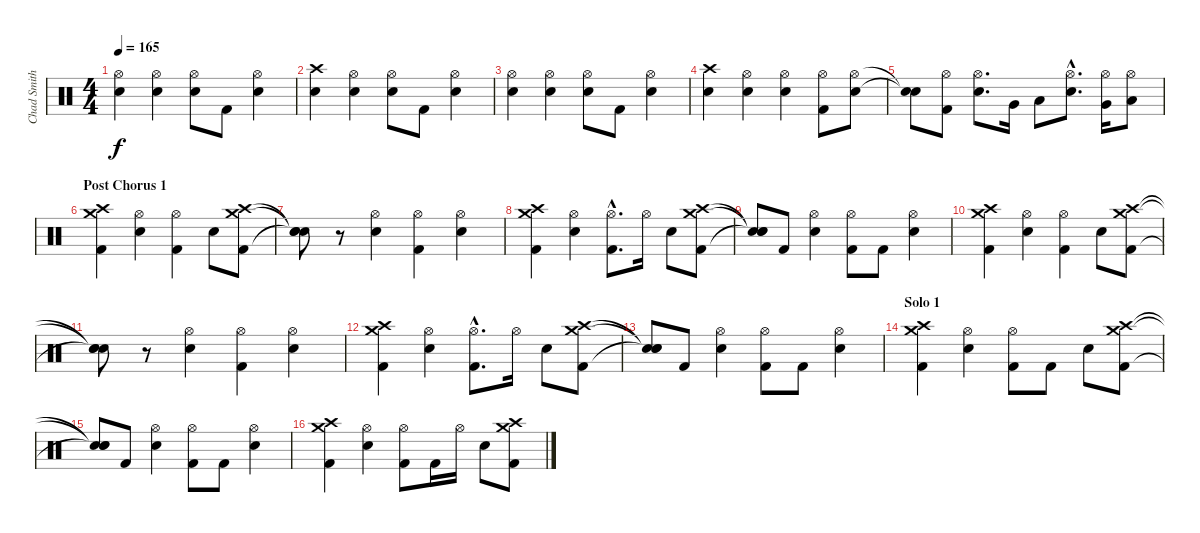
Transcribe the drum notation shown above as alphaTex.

\track ("Chad Smith - Drums" "Chad Smith") {instrument percussion}
\staff {score}
\articulation defaults
\ts (4 4)
\tempo 165
\clef neutral
\ks c
("Hi-Hat (open)" "Snare (hit) 2").4{dy f} ("Hi-Hat (open)" "Snare (hit) 2").4 ("Hi-Hat (open)" "Snare (hit) 2").8 "Kick (hit) 2".8 ("Snare (hit) 2" "Hi-Hat (open)").4 |
("Snare (hit) 2" "Crash high (hit)").4 ("Hi-Hat (open)" "Snare (hit) 2").4 ("Hi-Hat (open)" "Snare (hit) 2").8 "Kick (hit) 2".8 ("Snare (hit) 2" "Hi-Hat (open)").4 |
("Hi-Hat (open)" "Snare (hit) 2").4 ("Hi-Hat (open)" "Snare (hit) 2").4 ("Snare (hit) 2" "Hi-Hat (open)").8 "Kick (hit) 2".8 ("Hi-Hat (open)" "Snare (hit) 2").4 |
("Crash high (hit)" "Snare (hit) 2").4 ("Snare (hit) 2" "Hi-Hat (open)").4 ("Hi-Hat (open)" "Snare (hit) 2").4 ("Hi-Hat (open)" "Kick (hit) 2").8 ("Hi-Hat (open)" "Snare (hit) 2").8 |
("Snare (hit)"{t} "Snare (hit)"{t}).8 ("Hi-Hat (open)" "Kick (hit) 2").8 ("Hi-Hat (open)" "Snare (hit) 2").8{d} "Very Low Tom (hit)".16 "Low Floor Tom (hit)".8 ("Hi-Hat (open)"{hac} "Snare (hit) 2").8{d} ("Hi-Hat (open)" "Very Low Tom (hit)").16 ("Low Floor Tom (hit)" "Hi-Hat (open)").8 |
\section ("" "Post Chorus 1")
("Crash medium (hit)" "Crash high (hit)" "Kick (hit) 2").4 ("Hi-Hat (open)" "Snare (hit) 2").4 ("Hi-Hat (open)" "Kick (hit) 2").4 "Snare (hit) 2".8 ("Crash medium (hit)" "Kick (hit) 2" "Crash high (hit)").8 |
("Snare (hit)"{t} "Snare (hit)"{t} "Snare (hit)"{t}).8 r.8 ("Hi-Hat (open)" "Snare (hit) 2").4 ("Hi-Hat (open)" "Kick (hit) 2").4 ("Hi-Hat (open)" "Snare (hit) 2").4 |
("Crash medium (hit)" "Crash high (hit)" "Kick (hit) 2").4 ("Hi-Hat (open)" "Snare (hit) 2").4 ("Hi-Hat (open)"{hac} "Kick (hit) 2").8{d} "Hi-Hat (open)".16 "Snare (hit) 2".8 ("Crash high (hit)" "Crash medium (hit)" "Kick (hit) 2").8 |
("Snare (hit)"{t} "Snare (hit)"{t} "Snare (hit)"{t}).8 "Kick (hit) 2".8 ("Snare (hit) 2" "Hi-Hat (open)").4 ("Kick (hit) 2" "Hi-Hat (open)").8 "Kick (hit) 2".8 ("Snare (hit) 2" "Hi-Hat (open)").4 |
("Crash medium (hit)" "Crash high (hit)" "Kick (hit) 2").4 ("Hi-Hat (open)" "Snare (hit) 2").4 ("Hi-Hat (open)" "Kick (hit) 2").4 "Snare (hit) 2".8 ("Crash medium (hit)" "Kick (hit) 2" "Crash high (hit)").8 |
("Snare (hit)"{t} "Snare (hit)"{t} "Snare (hit)"{t}).8 r.8 ("Hi-Hat (open)" "Snare (hit) 2").4 ("Hi-Hat (open)" "Kick (hit) 2").4 ("Hi-Hat (open)" "Snare (hit) 2").4 |
("Crash medium (hit)" "Crash high (hit)" "Kick (hit) 2").4 ("Hi-Hat (open)" "Snare (hit) 2").4 ("Hi-Hat (open)"{hac} "Kick (hit) 2").8{d} "Hi-Hat (open)".16 "Snare (hit) 2".8 ("Crash high (hit)" "Crash medium (hit)" "Kick (hit) 2").8 |
("Snare (hit)"{t} "Snare (hit)"{t} "Snare (hit)"{t}).8 "Kick (hit) 2".8 ("Snare (hit) 2" "Hi-Hat (open)").4 ("Kick (hit) 2" "Hi-Hat (open)").8 "Kick (hit) 2".8 ("Snare (hit) 2" "Hi-Hat (open)").4 |
\section ("" "Solo 1")
("Crash medium (hit)" "Crash high (hit)" "Kick (hit) 2").4 ("Hi-Hat (open)" "Snare (hit) 2").4 ("Hi-Hat (open)" "Kick (hit) 2").8 "Kick (hit) 2".8 "Snare (hit) 2".8 ("Crash medium (hit)" "Kick (hit) 2" "Crash high (hit)").8 |
("Snare (hit)"{t} "Snare (hit)"{t} "Snare (hit)"{t}).8 "Kick (hit) 2".8 ("Hi-Hat (open)" "Snare (hit) 2").4 ("Hi-Hat (open)" "Kick (hit) 2").8 "Kick (hit) 2".8 ("Hi-Hat (open)" "Snare (hit) 2").4 |
("Crash medium (hit)" "Crash high (hit)" "Kick (hit) 2").4 ("Hi-Hat (open)" "Snare (hit) 2").4 ("Hi-Hat (open)" "Kick (hit) 2").8 "Kick (hit) 2".16 "Hi-Hat (open)".16 "Snare (hit) 2".8 ("Crash high (hit)" "Crash medium (hit)" "Kick (hit) 2").8
